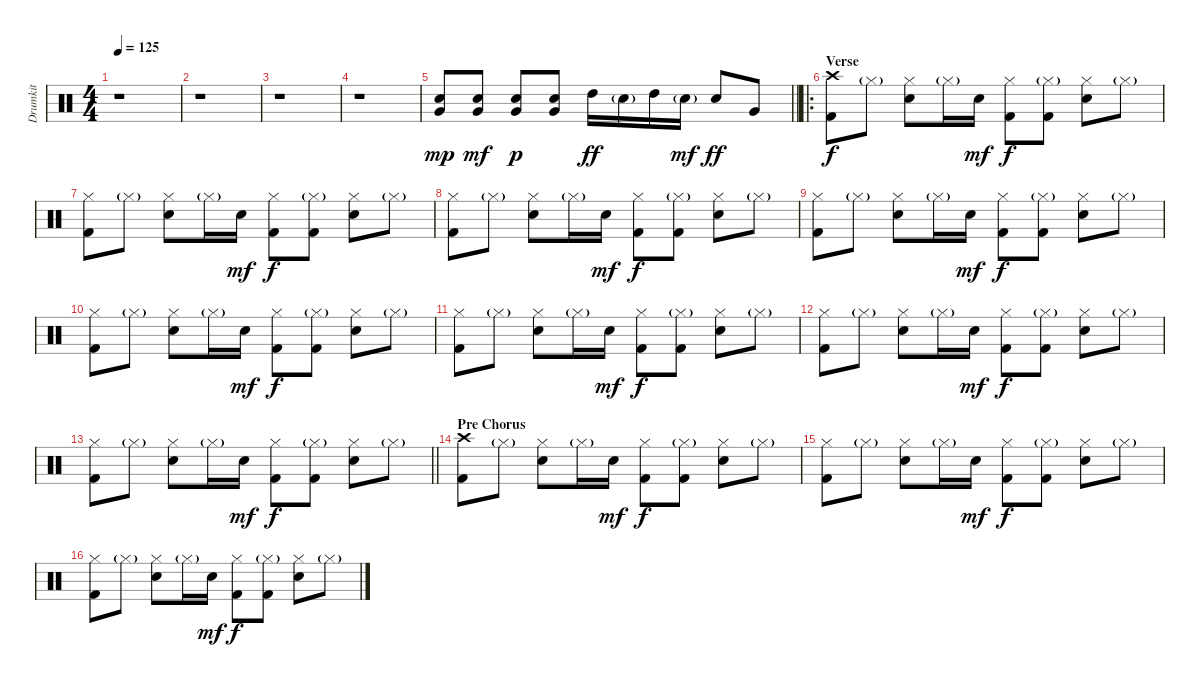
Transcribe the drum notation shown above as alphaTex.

\track ("Drumkit" "Drumkit") {instrument percussion}
\staff {score}
\articulation defaults
\ts (4 4)
\tempo 125
\clef neutral
\ks c
r.1{dy f} |
r.1 |
r.1 |
r.1 |
\barLineRight lightlight
("Very Low Tom (hit)" "Snare (hit) 2").8{dy mp} ("Very Low Tom (hit)" "Snare (hit) 2").8{dy mf} ("Very Low Tom (hit)" "Snare (hit) 2").8{dy p} ("Very Low Tom (hit)" "Snare (hit) 2").8 "High Tom (hit)".16{dy ff} "Snare (hit) 2"{g}.16 "High Tom (hit)".16 "Snare (hit) 2"{g}.16{dy mf} "Snare (hit) 2".8{dy ff} "Very Low Tom (hit)".8 |
\ro
\section ("" "Verse")
("Crash high (hit)" "Kick (hit) 2").8{dy f} "Hi-Hat (closed)"{g}.8 ("Hi-Hat (closed)" "Snare (hit) 2").8 "Hi-Hat (closed)"{g}.16 "Snare (hit) 2".16{dy mf} ("Hi-Hat (closed)" "Kick (hit) 2").8{dy f} ("Hi-Hat (closed)"{g} "Kick (hit) 2").8 ("Hi-Hat (closed)" "Snare (hit) 2").8 "Hi-Hat (closed)"{g}.8 |
("Hi-Hat (closed)" "Kick (hit) 2").8 "Hi-Hat (closed)"{g}.8 ("Hi-Hat (closed)" "Snare (hit) 2").8 "Hi-Hat (closed)"{g}.16 "Snare (hit) 2".16{dy mf} ("Hi-Hat (closed)" "Kick (hit) 2").8{dy f} ("Hi-Hat (closed)"{g} "Kick (hit) 2").8 ("Hi-Hat (closed)" "Snare (hit) 2").8 "Hi-Hat (closed)"{g}.8 |
("Hi-Hat (closed)" "Kick (hit) 2").8 "Hi-Hat (closed)"{g}.8 ("Hi-Hat (closed)" "Snare (hit) 2").8 "Hi-Hat (closed)"{g}.16 "Snare (hit) 2".16{dy mf} ("Hi-Hat (closed)" "Kick (hit) 2").8{dy f} ("Hi-Hat (closed)"{g} "Kick (hit) 2").8 ("Hi-Hat (closed)" "Snare (hit) 2").8 "Hi-Hat (closed)"{g}.8 |
("Hi-Hat (closed)" "Kick (hit) 2").8 "Hi-Hat (closed)"{g}.8 ("Hi-Hat (closed)" "Snare (hit) 2").8 "Hi-Hat (closed)"{g}.16 "Snare (hit) 2".16{dy mf} ("Hi-Hat (closed)" "Kick (hit) 2").8{dy f} ("Hi-Hat (closed)"{g} "Kick (hit) 2").8 ("Hi-Hat (closed)" "Snare (hit) 2").8 "Hi-Hat (closed)"{g}.8 |
("Hi-Hat (closed)" "Kick (hit) 2").8 "Hi-Hat (closed)"{g}.8 ("Hi-Hat (closed)" "Snare (hit) 2").8 "Hi-Hat (closed)"{g}.16 "Snare (hit) 2".16{dy mf} ("Hi-Hat (closed)" "Kick (hit) 2").8{dy f} ("Hi-Hat (closed)"{g} "Kick (hit) 2").8 ("Hi-Hat (closed)" "Snare (hit) 2").8 "Hi-Hat (closed)"{g}.8 |
("Hi-Hat (closed)" "Kick (hit) 2").8 "Hi-Hat (closed)"{g}.8 ("Hi-Hat (closed)" "Snare (hit) 2").8 "Hi-Hat (closed)"{g}.16 "Snare (hit) 2".16{dy mf} ("Hi-Hat (closed)" "Kick (hit) 2").8{dy f} ("Hi-Hat (closed)"{g} "Kick (hit) 2").8 ("Hi-Hat (closed)" "Snare (hit) 2").8 "Hi-Hat (closed)"{g}.8 |
("Hi-Hat (closed)" "Kick (hit) 2").8 "Hi-Hat (closed)"{g}.8 ("Hi-Hat (closed)" "Snare (hit) 2").8 "Hi-Hat (closed)"{g}.16 "Snare (hit) 2".16{dy mf} ("Hi-Hat (closed)" "Kick (hit) 2").8{dy f} ("Hi-Hat (closed)"{g} "Kick (hit) 2").8 ("Hi-Hat (closed)" "Snare (hit) 2").8 "Hi-Hat (closed)"{g}.8 |
\barLineRight lightlight
("Hi-Hat (closed)" "Kick (hit) 2").8 "Hi-Hat (closed)"{g}.8 ("Hi-Hat (closed)" "Snare (hit) 2").8 "Hi-Hat (closed)"{g}.16 "Snare (hit) 2".16{dy mf} ("Hi-Hat (closed)" "Kick (hit) 2").8{dy f} ("Hi-Hat (closed)"{g} "Kick (hit) 2").8 ("Hi-Hat (closed)" "Snare (hit) 2").8 "Hi-Hat (closed)"{g}.8 |
\section ("" "Pre Chorus")
("Crash high (hit)" "Kick (hit) 2").8 "Hi-Hat (closed)"{g}.8 ("Hi-Hat (closed)" "Snare (hit) 2").8 "Hi-Hat (closed)"{g}.16 "Snare (hit) 2".16{dy mf} ("Hi-Hat (closed)" "Kick (hit) 2").8{dy f} ("Hi-Hat (closed)"{g} "Kick (hit) 2").8 ("Hi-Hat (closed)" "Snare (hit) 2").8 "Hi-Hat (closed)"{g}.8 |
("Hi-Hat (closed)" "Kick (hit) 2").8 "Hi-Hat (closed)"{g}.8 ("Hi-Hat (closed)" "Snare (hit) 2").8 "Hi-Hat (closed)"{g}.16 "Snare (hit) 2".16{dy mf} ("Hi-Hat (closed)" "Kick (hit) 2").8{dy f} ("Hi-Hat (closed)"{g} "Kick (hit) 2").8 ("Hi-Hat (closed)" "Snare (hit) 2").8 "Hi-Hat (closed)"{g}.8 |
("Hi-Hat (closed)" "Kick (hit) 2").8 "Hi-Hat (closed)"{g}.8 ("Hi-Hat (closed)" "Snare (hit) 2").8 "Hi-Hat (closed)"{g}.16 "Snare (hit) 2".16{dy mf} ("Hi-Hat (closed)" "Kick (hit) 2").8{dy f} ("Hi-Hat (closed)"{g} "Kick (hit) 2").8 ("Hi-Hat (closed)" "Snare (hit) 2").8 "Hi-Hat (closed)"{g}.8
